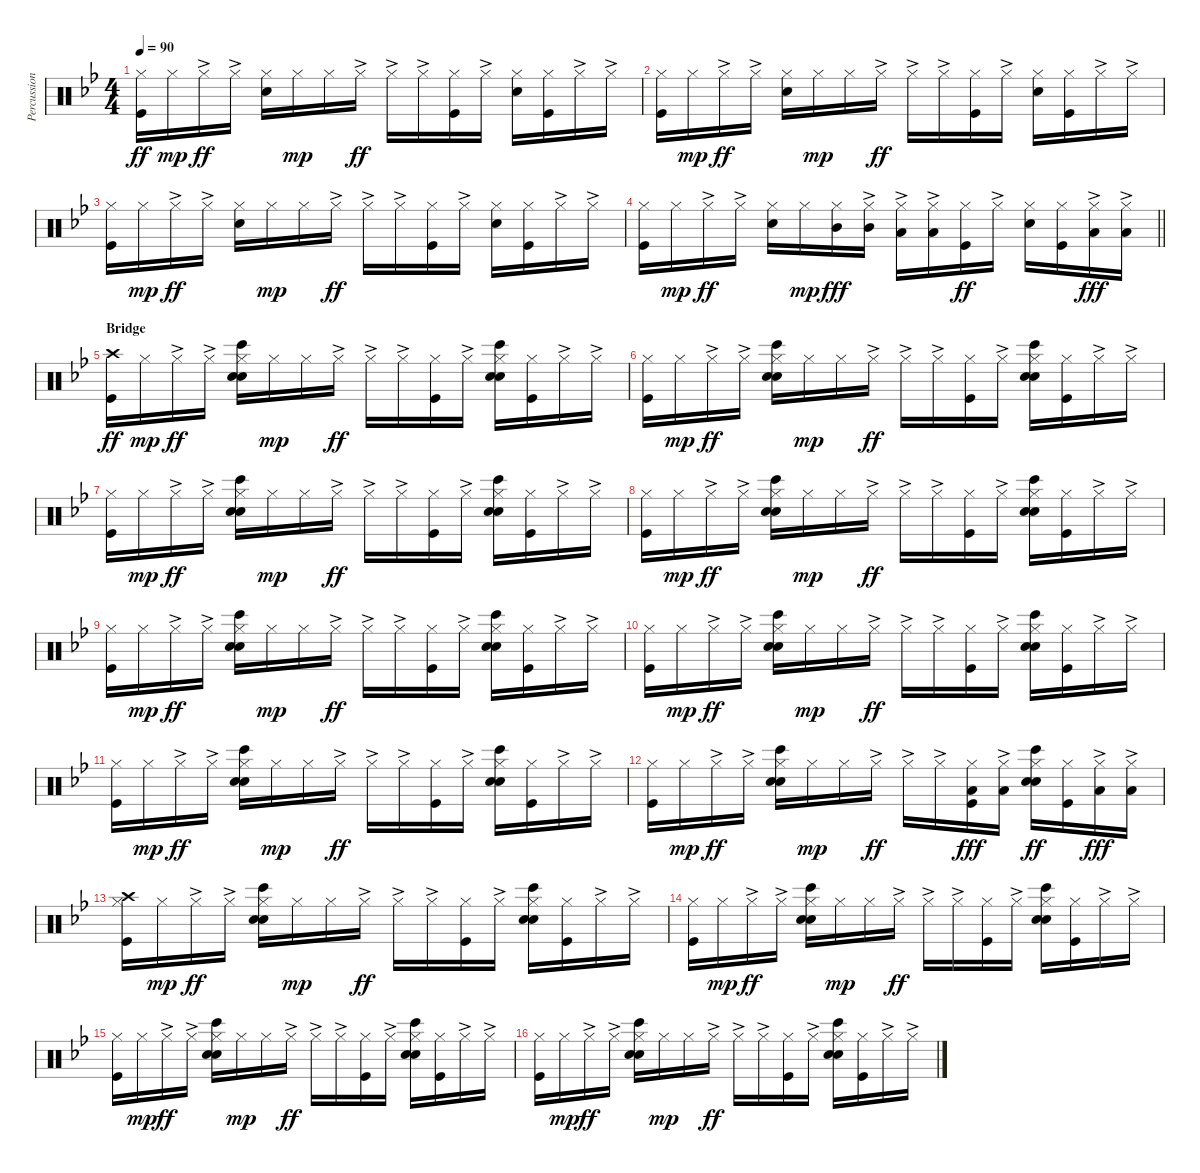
\track ("Percussion" "Percussion") {instrument percussion}
\staff {score}
\articulation defaults
\ts (4 4)
\tempo 90
\clef neutral
\ks bb
("Hi-Hat (closed)" "Kick (hit)").16{dy ff} "Hi-Hat (closed)".16{dy mp} "Hi-Hat (closed)"{ac}.16{dy ff} "Hi-Hat (closed)"{ac}.16 ("Hi-Hat (closed)" "Snare (hit) 2").16 "Hi-Hat (closed)".16{dy mp} "Hi-Hat (closed)".16 "Hi-Hat (closed)"{ac}.16{dy ff} "Hi-Hat (closed)"{ac}.16 "Hi-Hat (closed)"{ac}.16 ("Hi-Hat (closed)" "Kick (hit)").16 "Hi-Hat (closed)"{ac}.16 ("Hi-Hat (closed)" "Snare (hit) 2").16 ("Hi-Hat (closed)" "Kick (hit)").16 "Hi-Hat (closed)"{ac}.16 "Hi-Hat (closed)"{ac}.16 |
("Hi-Hat (closed)" "Kick (hit)").16 "Hi-Hat (closed)".16{dy mp} "Hi-Hat (closed)"{ac}.16{dy ff} "Hi-Hat (closed)"{ac}.16 ("Hi-Hat (closed)" "Snare (hit) 2").16 "Hi-Hat (closed)".16{dy mp} "Hi-Hat (closed)".16 "Hi-Hat (closed)"{ac}.16{dy ff} "Hi-Hat (closed)"{ac}.16 "Hi-Hat (closed)"{ac}.16 ("Hi-Hat (closed)" "Kick (hit)").16 "Hi-Hat (closed)"{ac}.16 ("Hi-Hat (closed)" "Snare (hit) 2").16 ("Hi-Hat (closed)" "Kick (hit)").16 "Hi-Hat (closed)"{ac}.16 "Hi-Hat (closed)"{ac}.16 |
("Hi-Hat (closed)" "Kick (hit)").16 "Hi-Hat (closed)".16{dy mp} "Hi-Hat (closed)"{ac}.16{dy ff} "Hi-Hat (closed)"{ac}.16 ("Hi-Hat (closed)" "Snare (hit) 2").16 "Hi-Hat (closed)".16{dy mp} "Hi-Hat (closed)".16 "Hi-Hat (closed)"{ac}.16{dy ff} "Hi-Hat (closed)"{ac}.16 "Hi-Hat (closed)"{ac}.16 ("Hi-Hat (closed)" "Kick (hit)").16 "Hi-Hat (closed)"{ac}.16 ("Hi-Hat (closed)" "Snare (hit) 2").16 ("Hi-Hat (closed)" "Kick (hit)").16 "Hi-Hat (closed)"{ac}.16 "Hi-Hat (closed)"{ac}.16 |
\barLineRight lightlight
("Hi-Hat (closed)" "Kick (hit)").16 "Hi-Hat (closed)".16{dy mp} "Hi-Hat (closed)"{ac}.16{dy ff} "Hi-Hat (closed)"{ac}.16 ("Hi-Hat (closed)" "Snare (hit) 2").16 "Hi-Hat (closed)".16{dy mp} ("Hi-Hat (closed)" "Mid Tom (hit)").16{dy fff} ("Hi-Hat (closed)"{ac} "Mid Tom (hit)").16 ("Hi-Hat (closed)"{ac} "Low Tom (hit)").16 ("Hi-Hat (closed)"{ac} "Low Tom (hit)").16 ("Hi-Hat (closed)" "Kick (hit)").16{dy ff} "Hi-Hat (closed)"{ac}.16 ("Hi-Hat (closed)" "Snare (hit) 2").16 ("Hi-Hat (closed)" "Kick (hit)").16 ("Hi-Hat (closed)"{ac} "Low Floor Tom (hit)").16{dy fff} ("Hi-Hat (closed)"{ac} "Low Floor Tom (hit)").16 |
\section ("" "Bridge")
("Crash high (hit)" "Kick (hit)").16{dy ff} "Hi-Hat (closed)".16{dy mp} "Hi-Hat (closed)"{ac}.16{dy ff} "Hi-Hat (closed)"{ac}.16 ("Hi-Hat (closed)" "Snare (hit) 2" "Bongo High (hit)" "Hand Clap (hit)").16 "Hi-Hat (closed)".16{dy mp} "Hi-Hat (closed)".16 "Hi-Hat (closed)"{ac}.16{dy ff} "Hi-Hat (closed)"{ac}.16 "Hi-Hat (closed)"{ac}.16 ("Hi-Hat (closed)" "Kick (hit)").16 "Hi-Hat (closed)"{ac}.16 ("Hi-Hat (closed)" "Snare (hit) 2" "Bongo High (hit)" "Hand Clap (hit)").16 ("Hi-Hat (closed)" "Kick (hit)").16 "Hi-Hat (closed)"{ac}.16 "Hi-Hat (closed)"{ac}.16 |
("Hi-Hat (closed)" "Kick (hit)").16 "Hi-Hat (closed)".16{dy mp} "Hi-Hat (closed)"{ac}.16{dy ff} "Hi-Hat (closed)"{ac}.16 ("Hi-Hat (closed)" "Snare (hit) 2" "Bongo High (hit)" "Hand Clap (hit)").16 "Hi-Hat (closed)".16{dy mp} "Hi-Hat (closed)".16 "Hi-Hat (closed)"{ac}.16{dy ff} "Hi-Hat (closed)"{ac}.16 "Hi-Hat (closed)"{ac}.16 ("Hi-Hat (closed)" "Kick (hit)").16 "Hi-Hat (closed)"{ac}.16 ("Hi-Hat (closed)" "Snare (hit) 2" "Bongo High (hit)" "Hand Clap (hit)").16 ("Hi-Hat (closed)" "Kick (hit)").16 "Hi-Hat (closed)"{ac}.16 "Hi-Hat (closed)"{ac}.16 |
("Hi-Hat (closed)" "Kick (hit)").16 "Hi-Hat (closed)".16{dy mp} "Hi-Hat (closed)"{ac}.16{dy ff} "Hi-Hat (closed)"{ac}.16 ("Hi-Hat (closed)" "Snare (hit) 2" "Bongo High (hit)" "Hand Clap (hit)").16 "Hi-Hat (closed)".16{dy mp} "Hi-Hat (closed)".16 "Hi-Hat (closed)"{ac}.16{dy ff} "Hi-Hat (closed)"{ac}.16 "Hi-Hat (closed)"{ac}.16 ("Hi-Hat (closed)" "Kick (hit)").16 "Hi-Hat (closed)"{ac}.16 ("Hi-Hat (closed)" "Snare (hit) 2" "Bongo High (hit)" "Hand Clap (hit)").16 ("Hi-Hat (closed)" "Kick (hit)").16 "Hi-Hat (closed)"{ac}.16 "Hi-Hat (closed)"{ac}.16 |
("Hi-Hat (closed)" "Kick (hit)").16 "Hi-Hat (closed)".16{dy mp} "Hi-Hat (closed)"{ac}.16{dy ff} "Hi-Hat (closed)"{ac}.16 ("Hi-Hat (closed)" "Snare (hit) 2" "Bongo High (hit)" "Hand Clap (hit)").16 "Hi-Hat (closed)".16{dy mp} "Hi-Hat (closed)".16 "Hi-Hat (closed)"{ac}.16{dy ff} "Hi-Hat (closed)"{ac}.16 "Hi-Hat (closed)"{ac}.16 ("Hi-Hat (closed)" "Kick (hit)").16 "Hi-Hat (closed)"{ac}.16 ("Hi-Hat (closed)" "Snare (hit) 2" "Bongo High (hit)" "Hand Clap (hit)").16 ("Hi-Hat (closed)" "Kick (hit)").16 "Hi-Hat (closed)"{ac}.16 "Hi-Hat (closed)"{ac}.16 |
("Hi-Hat (closed)" "Kick (hit)").16 "Hi-Hat (closed)".16{dy mp} "Hi-Hat (closed)"{ac}.16{dy ff} "Hi-Hat (closed)"{ac}.16 ("Hi-Hat (closed)" "Snare (hit) 2" "Bongo High (hit)" "Hand Clap (hit)").16 "Hi-Hat (closed)".16{dy mp} "Hi-Hat (closed)".16 "Hi-Hat (closed)"{ac}.16{dy ff} "Hi-Hat (closed)"{ac}.16 "Hi-Hat (closed)"{ac}.16 ("Hi-Hat (closed)" "Kick (hit)").16 "Hi-Hat (closed)"{ac}.16 ("Hi-Hat (closed)" "Snare (hit) 2" "Bongo High (hit)" "Hand Clap (hit)").16 ("Hi-Hat (closed)" "Kick (hit)").16 "Hi-Hat (closed)"{ac}.16 "Hi-Hat (closed)"{ac}.16 |
("Hi-Hat (closed)" "Kick (hit)").16 "Hi-Hat (closed)".16{dy mp} "Hi-Hat (closed)"{ac}.16{dy ff} "Hi-Hat (closed)"{ac}.16 ("Hi-Hat (closed)" "Snare (hit) 2" "Bongo High (hit)" "Hand Clap (hit)").16 "Hi-Hat (closed)".16{dy mp} "Hi-Hat (closed)".16 "Hi-Hat (closed)"{ac}.16{dy ff} "Hi-Hat (closed)"{ac}.16 "Hi-Hat (closed)"{ac}.16 ("Hi-Hat (closed)" "Kick (hit)").16 "Hi-Hat (closed)"{ac}.16 ("Hi-Hat (closed)" "Snare (hit) 2" "Bongo High (hit)" "Hand Clap (hit)").16 ("Hi-Hat (closed)" "Kick (hit)").16 "Hi-Hat (closed)"{ac}.16 "Hi-Hat (closed)"{ac}.16 |
("Hi-Hat (closed)" "Kick (hit)").16 "Hi-Hat (closed)".16{dy mp} "Hi-Hat (closed)"{ac}.16{dy ff} "Hi-Hat (closed)"{ac}.16 ("Hi-Hat (closed)" "Snare (hit) 2" "Bongo High (hit)" "Hand Clap (hit)").16 "Hi-Hat (closed)".16{dy mp} "Hi-Hat (closed)".16 "Hi-Hat (closed)"{ac}.16{dy ff} "Hi-Hat (closed)"{ac}.16 "Hi-Hat (closed)"{ac}.16 ("Hi-Hat (closed)" "Kick (hit)").16 "Hi-Hat (closed)"{ac}.16 ("Hi-Hat (closed)" "Snare (hit) 2" "Bongo High (hit)" "Hand Clap (hit)").16 ("Hi-Hat (closed)" "Kick (hit)").16 "Hi-Hat (closed)"{ac}.16 "Hi-Hat (closed)"{ac}.16 |
("Hi-Hat (closed)" "Kick (hit)").16 "Hi-Hat (closed)".16{dy mp} "Hi-Hat (closed)"{ac}.16{dy ff} "Hi-Hat (closed)"{ac}.16 ("Hi-Hat (closed)" "Snare (hit) 2" "Bongo High (hit)" "Hand Clap (hit)").16 "Hi-Hat (closed)".16{dy mp} "Hi-Hat (closed)".16 "Hi-Hat (closed)"{ac}.16{dy ff} "Hi-Hat (closed)"{ac}.16 "Hi-Hat (closed)"{ac}.16 ("Hi-Hat (closed)" "Kick (hit)" "Low Tom (hit)").16{dy fff} ("Hi-Hat (closed)"{ac} "Low Tom (hit)").16 ("Hi-Hat (closed)" "Snare (hit) 2" "Bongo High (hit)" "Hand Clap (hit)").16{dy ff} ("Hi-Hat (closed)" "Kick (hit)").16 ("Hi-Hat (closed)"{ac} "Low Tom (hit)").16{dy fff} ("Hi-Hat (closed)"{ac} "Low Tom (hit)").16 |
("Hi-Hat (closed)" "Kick (hit)" "Crash high (hit)").16 "Hi-Hat (closed)".16{dy mp} "Hi-Hat (closed)"{ac}.16{dy ff} "Hi-Hat (closed)"{ac}.16 ("Hi-Hat (closed)" "Snare (hit) 2" "Bongo High (hit)" "Hand Clap (hit)").16 "Hi-Hat (closed)".16{dy mp} "Hi-Hat (closed)".16 "Hi-Hat (closed)"{ac}.16{dy ff} "Hi-Hat (closed)"{ac}.16 "Hi-Hat (closed)"{ac}.16 ("Hi-Hat (closed)" "Kick (hit)").16 "Hi-Hat (closed)"{ac}.16 ("Hi-Hat (closed)" "Snare (hit) 2" "Bongo High (hit)" "Hand Clap (hit)").16 ("Hi-Hat (closed)" "Kick (hit)").16 "Hi-Hat (closed)"{ac}.16 "Hi-Hat (closed)"{ac}.16 |
("Hi-Hat (closed)" "Kick (hit)").16 "Hi-Hat (closed)".16{dy mp} "Hi-Hat (closed)"{ac}.16{dy ff} "Hi-Hat (closed)"{ac}.16 ("Hi-Hat (closed)" "Snare (hit) 2" "Bongo High (hit)" "Hand Clap (hit)").16 "Hi-Hat (closed)".16{dy mp} "Hi-Hat (closed)".16 "Hi-Hat (closed)"{ac}.16{dy ff} "Hi-Hat (closed)"{ac}.16 "Hi-Hat (closed)"{ac}.16 ("Hi-Hat (closed)" "Kick (hit)").16 "Hi-Hat (closed)"{ac}.16 ("Hi-Hat (closed)" "Snare (hit) 2" "Bongo High (hit)" "Hand Clap (hit)").16 ("Hi-Hat (closed)" "Kick (hit)").16 "Hi-Hat (closed)"{ac}.16 "Hi-Hat (closed)"{ac}.16 |
("Hi-Hat (closed)" "Kick (hit)").16 "Hi-Hat (closed)".16{dy mp} "Hi-Hat (closed)"{ac}.16{dy ff} "Hi-Hat (closed)"{ac}.16 ("Hi-Hat (closed)" "Snare (hit) 2" "Bongo High (hit)" "Hand Clap (hit)").16 "Hi-Hat (closed)".16{dy mp} "Hi-Hat (closed)".16 "Hi-Hat (closed)"{ac}.16{dy ff} "Hi-Hat (closed)"{ac}.16 "Hi-Hat (closed)"{ac}.16 ("Hi-Hat (closed)" "Kick (hit)").16 "Hi-Hat (closed)"{ac}.16 ("Hi-Hat (closed)" "Snare (hit) 2" "Bongo High (hit)" "Hand Clap (hit)").16 ("Hi-Hat (closed)" "Kick (hit)").16 "Hi-Hat (closed)"{ac}.16 "Hi-Hat (closed)"{ac}.16 |
("Hi-Hat (closed)" "Kick (hit)").16 "Hi-Hat (closed)".16{dy mp} "Hi-Hat (closed)"{ac}.16{dy ff} "Hi-Hat (closed)"{ac}.16 ("Hi-Hat (closed)" "Snare (hit) 2" "Bongo High (hit)" "Hand Clap (hit)").16 "Hi-Hat (closed)".16{dy mp} "Hi-Hat (closed)".16 "Hi-Hat (closed)"{ac}.16{dy ff} "Hi-Hat (closed)"{ac}.16 "Hi-Hat (closed)"{ac}.16 ("Hi-Hat (closed)" "Kick (hit)").16 "Hi-Hat (closed)"{ac}.16 ("Hi-Hat (closed)" "Snare (hit) 2" "Bongo High (hit)" "Hand Clap (hit)").16 ("Hi-Hat (closed)" "Kick (hit)").16 "Hi-Hat (closed)"{ac}.16 "Hi-Hat (closed)"{ac}.16
